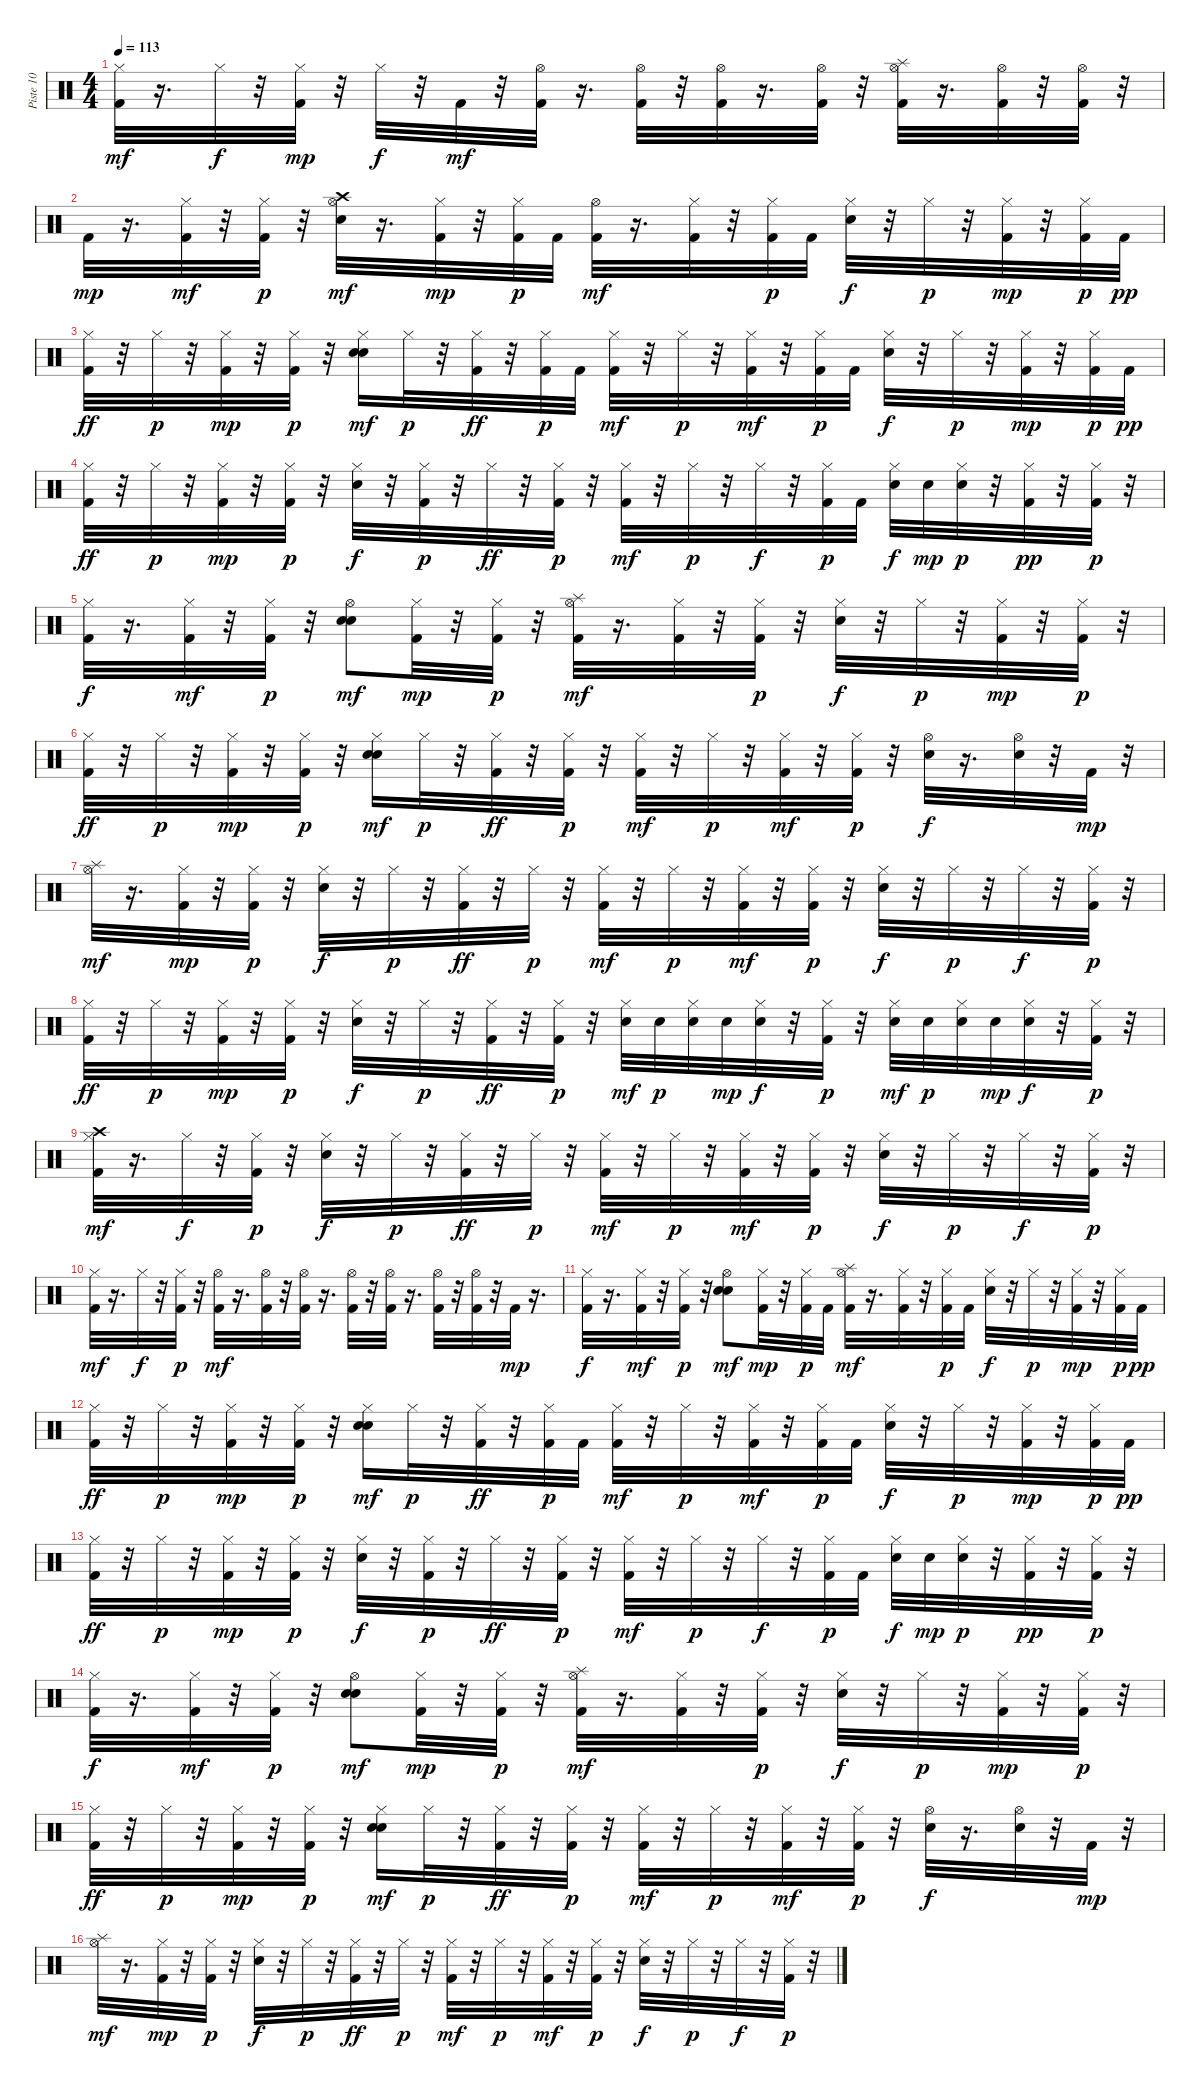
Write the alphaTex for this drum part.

\track ("Piste 10" "Piste 10") {instrument percussion}
\staff {score}
\articulation defaults
\ts (4 4)
\tempo 113
\clef neutral
\ks c
("Kick (hit) 2" "Hi-Hat (closed)").32{dy mf} r.16{d} "Hi-Hat (closed)".32{dy f} r.32 ("Kick (hit) 2" "Hi-Hat (closed)").32{dy mp} r.32 "Hi-Hat (closed)".32{dy f} r.32 "Kick (hit) 2".32{dy mf} r.32 ("Kick (hit) 2" "Hi-Hat (open)").32 r.16{d} ("Kick (hit) 2" "Hi-Hat (open)").32 r.32 ("Kick (hit) 2" "Hi-Hat (open)").32 r.16{d} ("Kick (hit) 2" "Hi-Hat (open)").32 r.32 ("Kick (hit) 2" "Hi-Hat (open)" "Splash (hit)").32 r.16{d} ("Kick (hit) 2" "Hi-Hat (open)").32 r.32 ("Kick (hit) 2" "Hi-Hat (open)").32 r.32 |
"Kick (hit) 2".32{dy mp} r.16{d} ("Kick (hit) 2" "Hi-Hat (closed)").32{dy mf} r.32 ("Kick (hit) 2" "Hi-Hat (closed)").32{dy p} r.32 ("Electric Snare (hit)" "Hi-Hat (open)" "Crash high (hit)").32{dy mf} r.16{d} ("Kick (hit) 2" "Hi-Hat (closed)").32{dy mp} r.32 ("Kick (hit) 2" "Hi-Hat (closed)").32{dy p} "Kick (hit) 2".32 ("Kick (hit) 2" "Hi-Hat (open)").32{dy mf} r.16{d} ("Kick (hit) 2" "Hi-Hat (closed)").32 r.32 ("Kick (hit) 2" "Hi-Hat (closed)").32{dy p} "Kick (hit) 2".32 ("Electric Snare (hit)" "Hi-Hat (closed)").32{dy f} r.32 "Hi-Hat (closed)".32{dy p} r.32 ("Kick (hit) 2" "Hi-Hat (closed)").32{dy mp} r.32 ("Kick (hit) 2" "Hi-Hat (closed)").32{dy p} "Kick (hit) 2".32{dy pp} |
("Kick (hit) 2" "Hi-Hat (closed)").32{dy ff} r.32 "Hi-Hat (closed)".32{dy p} r.32 ("Kick (hit) 2" "Hi-Hat (closed)").32{dy mp} r.32 ("Kick (hit) 2" "Hi-Hat (closed)").32{dy p} r.32 ("Electric Snare (hit)" "Electric Snare (hit)" "Hi-Hat (closed)").16{dy mf} "Hi-Hat (closed)".32{dy p} r.32 ("Kick (hit) 2" "Hi-Hat (closed)").32{dy ff} r.32 ("Kick (hit) 2" "Hi-Hat (closed)").32{dy p} "Kick (hit) 2".32 ("Kick (hit) 2" "Hi-Hat (closed)").32{dy mf} r.32 "Hi-Hat (closed)".32{dy p} r.32 ("Kick (hit) 2" "Hi-Hat (closed)").32{dy mf} r.32 ("Kick (hit) 2" "Hi-Hat (closed)").32{dy p} "Kick (hit) 2".32 ("Electric Snare (hit)" "Hi-Hat (closed)").32{dy f} r.32 "Hi-Hat (closed)".32{dy p} r.32 ("Kick (hit) 2" "Hi-Hat (closed)").32{dy mp} r.32 ("Kick (hit) 2" "Hi-Hat (closed)").32{dy p} "Kick (hit) 2".32{dy pp} |
("Kick (hit) 2" "Hi-Hat (closed)").32{dy ff} r.32 "Hi-Hat (closed)".32{dy p} r.32 ("Kick (hit) 2" "Hi-Hat (closed)").32{dy mp} r.32 ("Kick (hit) 2" "Hi-Hat (closed)").32{dy p} r.32 ("Electric Snare (hit)" "Hi-Hat (closed)").32{dy f} r.32 ("Kick (hit) 2" "Hi-Hat (closed)").32{dy p} r.32 "Hi-Hat (closed)".32{dy ff} r.32 ("Kick (hit) 2" "Hi-Hat (closed)").32{dy p} r.32 ("Kick (hit) 2" "Hi-Hat (closed)").32{dy mf} r.32 "Hi-Hat (closed)".32{dy p} r.32 "Hi-Hat (closed)".32{dy f} r.32 ("Kick (hit) 2" "Hi-Hat (closed)").32{dy p} "Kick (hit) 2".32 ("Electric Snare (hit)" "Hi-Hat (closed)").32{dy f} "Electric Snare (hit)".32{dy mp} ("Electric Snare (hit)" "Hi-Hat (closed)").32{dy p} r.32 ("Kick (hit) 2" "Hi-Hat (closed)").32{dy pp} r.32 ("Kick (hit) 2" "Hi-Hat (closed)").32{dy p} r.32 |
("Kick (hit) 2" "Hi-Hat (closed)").32{dy f} r.16{d} ("Kick (hit) 2" "Hi-Hat (closed)").32{dy mf} r.32 ("Kick (hit) 2" "Hi-Hat (closed)").32{dy p} r.32 ("Electric Snare (hit)" "Electric Snare (hit)" "Hi-Hat (open)").8{dy mf} ("Kick (hit) 2" "Hi-Hat (closed)").32{dy mp} r.32 ("Kick (hit) 2" "Hi-Hat (closed)").32{dy p} r.32 ("Kick (hit) 2" "Hi-Hat (open)" "Splash (hit)").32{dy mf} r.16{d} ("Kick (hit) 2" "Hi-Hat (closed)").32 r.32 ("Kick (hit) 2" "Hi-Hat (closed)").32{dy p} r.32 ("Electric Snare (hit)" "Hi-Hat (closed)").32{dy f} r.32 "Hi-Hat (closed)".32{dy p} r.32 ("Kick (hit) 2" "Hi-Hat (closed)").32{dy mp} r.32 ("Kick (hit) 2" "Hi-Hat (closed)").32{dy p} r.32 |
("Kick (hit) 2" "Hi-Hat (closed)").32{dy ff} r.32 "Hi-Hat (closed)".32{dy p} r.32 ("Kick (hit) 2" "Hi-Hat (closed)").32{dy mp} r.32 ("Kick (hit) 2" "Hi-Hat (closed)").32{dy p} r.32 ("Electric Snare (hit)" "Electric Snare (hit)" "Hi-Hat (closed)").16{dy mf} "Hi-Hat (closed)".32{dy p} r.32 ("Kick (hit) 2" "Hi-Hat (closed)").32{dy ff} r.32 ("Kick (hit) 2" "Hi-Hat (closed)").32{dy p} r.32 ("Kick (hit) 2" "Hi-Hat (closed)").32{dy mf} r.32 "Hi-Hat (closed)".32{dy p} r.32 ("Kick (hit) 2" "Hi-Hat (closed)").32{dy mf} r.32 ("Kick (hit) 2" "Hi-Hat (closed)").32{dy p} r.32 ("Electric Snare (hit)" "Hi-Hat (open)").32{dy f} r.16{d} ("Electric Snare (hit)" "Hi-Hat (open)").32 r.32 "Kick (hit) 2".32{dy mp} r.32 |
("Hi-Hat (open)" "Splash (hit)").32{dy mf} r.16{d} ("Kick (hit) 2" "Hi-Hat (closed)").32{dy mp} r.32 ("Kick (hit) 2" "Hi-Hat (closed)").32{dy p} r.32 ("Electric Snare (hit)" "Hi-Hat (closed)").32{dy f} r.32 "Hi-Hat (closed)".32{dy p} r.32 ("Kick (hit) 2" "Hi-Hat (closed)").32{dy ff} r.32 "Hi-Hat (closed)".32{dy p} r.32 ("Kick (hit) 2" "Hi-Hat (closed)").32{dy mf} r.32 "Hi-Hat (closed)".32{dy p} r.32 ("Kick (hit) 2" "Hi-Hat (closed)").32{dy mf} r.32 ("Kick (hit) 2" "Hi-Hat (closed)").32{dy p} r.32 ("Electric Snare (hit)" "Hi-Hat (closed)").32{dy f} r.32 "Hi-Hat (closed)".32{dy p} r.32 "Hi-Hat (closed)".32{dy f} r.32 ("Kick (hit) 2" "Hi-Hat (closed)").32{dy p} r.32 |
("Kick (hit) 2" "Hi-Hat (closed)").32{dy ff} r.32 "Hi-Hat (closed)".32{dy p} r.32 ("Kick (hit) 2" "Hi-Hat (closed)").32{dy mp} r.32 ("Kick (hit) 2" "Hi-Hat (closed)").32{dy p} r.32 ("Electric Snare (hit)" "Hi-Hat (closed)").32{dy f} r.32 "Hi-Hat (closed)".32{dy p} r.32 ("Kick (hit) 2" "Hi-Hat (closed)").32{dy ff} r.32 ("Kick (hit) 2" "Hi-Hat (closed)").32{dy p} r.32 ("Electric Snare (hit)" "Hi-Hat (closed)").32{dy mf} "Electric Snare (hit)".32{dy p} ("Electric Snare (hit)" "Hi-Hat (closed)").32 "Electric Snare (hit)".32{dy mp} ("Electric Snare (hit)" "Hi-Hat (closed)").32{dy f} r.32 ("Kick (hit) 2" "Hi-Hat (closed)").32{dy p} r.32 ("Electric Snare (hit)" "Hi-Hat (closed)").32{dy mf} "Electric Snare (hit)".32{dy p} ("Electric Snare (hit)" "Hi-Hat (closed)").32 "Electric Snare (hit)".32{dy mp} ("Electric Snare (hit)" "Hi-Hat (closed)").32{dy f} r.32 ("Kick (hit) 2" "Hi-Hat (closed)").32{dy p} r.32 |
("Kick (hit) 2" "Hi-Hat (closed)" "Crash high (hit)").32{dy mf} r.16{d} "Hi-Hat (closed)".32{dy f} r.32 ("Kick (hit) 2" "Hi-Hat (closed)").32{dy p} r.32 ("Electric Snare (hit)" "Hi-Hat (closed)").32{dy f} r.32 "Hi-Hat (closed)".32{dy p} r.32 ("Kick (hit) 2" "Hi-Hat (closed)").32{dy ff} r.32 "Hi-Hat (closed)".32{dy p} r.32 ("Kick (hit) 2" "Hi-Hat (closed)").32{dy mf} r.32 "Hi-Hat (closed)".32{dy p} r.32 ("Kick (hit) 2" "Hi-Hat (closed)").32{dy mf} r.32 ("Kick (hit) 2" "Hi-Hat (closed)").32{dy p} r.32 ("Electric Snare (hit)" "Hi-Hat (closed)").32{dy f} r.32 "Hi-Hat (closed)".32{dy p} r.32 "Hi-Hat (closed)".32{dy f} r.32 ("Kick (hit) 2" "Hi-Hat (closed)").32{dy p} r.32 |
("Kick (hit) 2" "Hi-Hat (closed)").32{dy mf} r.16{d} "Hi-Hat (closed)".32{dy f} r.32 ("Kick (hit) 2" "Hi-Hat (closed)").32{dy p} r.32 ("Kick (hit) 2" "Hi-Hat (open)").32{dy mf} r.16{d} ("Kick (hit) 2" "Hi-Hat (open)").32 r.32 ("Kick (hit) 2" "Hi-Hat (open)").32 r.16{d} ("Kick (hit) 2" "Hi-Hat (open)").32 r.32 ("Kick (hit) 2" "Hi-Hat (open)").32 r.16{d} ("Kick (hit) 2" "Hi-Hat (open)").32 r.32 ("Kick (hit) 2" "Hi-Hat (open)").32 r.32 "Kick (hit) 2".32{dy mp} r.16{d} |
("Kick (hit) 2" "Hi-Hat (closed)").32{dy f} r.16{d} ("Kick (hit) 2" "Hi-Hat (closed)").32{dy mf} r.32 ("Kick (hit) 2" "Hi-Hat (closed)").32{dy p} r.32 ("Electric Snare (hit)" "Electric Snare (hit)" "Hi-Hat (open)").8{dy mf} ("Kick (hit) 2" "Hi-Hat (closed)").32{dy mp} r.32 ("Kick (hit) 2" "Hi-Hat (closed)").32{dy p} "Kick (hit) 2".32 ("Kick (hit) 2" "Hi-Hat (open)" "Splash (hit)").32{dy mf} r.16{d} ("Kick (hit) 2" "Hi-Hat (closed)").32 r.32 ("Kick (hit) 2" "Hi-Hat (closed)").32{dy p} "Kick (hit) 2".32 ("Electric Snare (hit)" "Hi-Hat (closed)").32{dy f} r.32 "Hi-Hat (closed)".32{dy p} r.32 ("Kick (hit) 2" "Hi-Hat (closed)").32{dy mp} r.32 ("Kick (hit) 2" "Hi-Hat (closed)").32{dy p} "Kick (hit) 2".32{dy pp} |
("Kick (hit) 2" "Hi-Hat (closed)").32{dy ff} r.32 "Hi-Hat (closed)".32{dy p} r.32 ("Kick (hit) 2" "Hi-Hat (closed)").32{dy mp} r.32 ("Kick (hit) 2" "Hi-Hat (closed)").32{dy p} r.32 ("Electric Snare (hit)" "Electric Snare (hit)" "Hi-Hat (closed)").16{dy mf} "Hi-Hat (closed)".32{dy p} r.32 ("Kick (hit) 2" "Hi-Hat (closed)").32{dy ff} r.32 ("Kick (hit) 2" "Hi-Hat (closed)").32{dy p} "Kick (hit) 2".32 ("Kick (hit) 2" "Hi-Hat (closed)").32{dy mf} r.32 "Hi-Hat (closed)".32{dy p} r.32 ("Kick (hit) 2" "Hi-Hat (closed)").32{dy mf} r.32 ("Kick (hit) 2" "Hi-Hat (closed)").32{dy p} "Kick (hit) 2".32 ("Electric Snare (hit)" "Hi-Hat (closed)").32{dy f} r.32 "Hi-Hat (closed)".32{dy p} r.32 ("Kick (hit) 2" "Hi-Hat (closed)").32{dy mp} r.32 ("Kick (hit) 2" "Hi-Hat (closed)").32{dy p} "Kick (hit) 2".32{dy pp} |
("Kick (hit) 2" "Hi-Hat (closed)").32{dy ff} r.32 "Hi-Hat (closed)".32{dy p} r.32 ("Kick (hit) 2" "Hi-Hat (closed)").32{dy mp} r.32 ("Kick (hit) 2" "Hi-Hat (closed)").32{dy p} r.32 ("Electric Snare (hit)" "Hi-Hat (closed)").32{dy f} r.32 ("Kick (hit) 2" "Hi-Hat (closed)").32{dy p} r.32 "Hi-Hat (closed)".32{dy ff} r.32 ("Kick (hit) 2" "Hi-Hat (closed)").32{dy p} r.32 ("Kick (hit) 2" "Hi-Hat (closed)").32{dy mf} r.32 "Hi-Hat (closed)".32{dy p} r.32 "Hi-Hat (closed)".32{dy f} r.32 ("Kick (hit) 2" "Hi-Hat (closed)").32{dy p} "Kick (hit) 2".32 ("Electric Snare (hit)" "Hi-Hat (closed)").32{dy f} "Electric Snare (hit)".32{dy mp} ("Electric Snare (hit)" "Hi-Hat (closed)").32{dy p} r.32 ("Kick (hit) 2" "Hi-Hat (closed)").32{dy pp} r.32 ("Kick (hit) 2" "Hi-Hat (closed)").32{dy p} r.32 |
("Kick (hit) 2" "Hi-Hat (closed)").32{dy f} r.16{d} ("Kick (hit) 2" "Hi-Hat (closed)").32{dy mf} r.32 ("Kick (hit) 2" "Hi-Hat (closed)").32{dy p} r.32 ("Electric Snare (hit)" "Electric Snare (hit)" "Hi-Hat (open)").8{dy mf} ("Kick (hit) 2" "Hi-Hat (closed)").32{dy mp} r.32 ("Kick (hit) 2" "Hi-Hat (closed)").32{dy p} r.32 ("Kick (hit) 2" "Hi-Hat (open)" "Splash (hit)").32{dy mf} r.16{d} ("Kick (hit) 2" "Hi-Hat (closed)").32 r.32 ("Kick (hit) 2" "Hi-Hat (closed)").32{dy p} r.32 ("Electric Snare (hit)" "Hi-Hat (closed)").32{dy f} r.32 "Hi-Hat (closed)".32{dy p} r.32 ("Kick (hit) 2" "Hi-Hat (closed)").32{dy mp} r.32 ("Kick (hit) 2" "Hi-Hat (closed)").32{dy p} r.32 |
("Kick (hit) 2" "Hi-Hat (closed)").32{dy ff} r.32 "Hi-Hat (closed)".32{dy p} r.32 ("Kick (hit) 2" "Hi-Hat (closed)").32{dy mp} r.32 ("Kick (hit) 2" "Hi-Hat (closed)").32{dy p} r.32 ("Electric Snare (hit)" "Electric Snare (hit)" "Hi-Hat (closed)").16{dy mf} "Hi-Hat (closed)".32{dy p} r.32 ("Kick (hit) 2" "Hi-Hat (closed)").32{dy ff} r.32 ("Kick (hit) 2" "Hi-Hat (closed)").32{dy p} r.32 ("Kick (hit) 2" "Hi-Hat (closed)").32{dy mf} r.32 "Hi-Hat (closed)".32{dy p} r.32 ("Kick (hit) 2" "Hi-Hat (closed)").32{dy mf} r.32 ("Kick (hit) 2" "Hi-Hat (closed)").32{dy p} r.32 ("Electric Snare (hit)" "Hi-Hat (open)").32{dy f} r.16{d} ("Electric Snare (hit)" "Hi-Hat (open)").32 r.32 "Kick (hit) 2".32{dy mp} r.32 |
("Hi-Hat (open)" "Splash (hit)").32{dy mf} r.16{d} ("Kick (hit) 2" "Hi-Hat (closed)").32{dy mp} r.32 ("Kick (hit) 2" "Hi-Hat (closed)").32{dy p} r.32 ("Electric Snare (hit)" "Hi-Hat (closed)").32{dy f} r.32 "Hi-Hat (closed)".32{dy p} r.32 ("Kick (hit) 2" "Hi-Hat (closed)").32{dy ff} r.32 "Hi-Hat (closed)".32{dy p} r.32 ("Kick (hit) 2" "Hi-Hat (closed)").32{dy mf} r.32 "Hi-Hat (closed)".32{dy p} r.32 ("Kick (hit) 2" "Hi-Hat (closed)").32{dy mf} r.32 ("Kick (hit) 2" "Hi-Hat (closed)").32{dy p} r.32 ("Electric Snare (hit)" "Hi-Hat (closed)").32{dy f} r.32 "Hi-Hat (closed)".32{dy p} r.32 "Hi-Hat (closed)".32{dy f} r.32 ("Kick (hit) 2" "Hi-Hat (closed)").32{dy p} r.32
